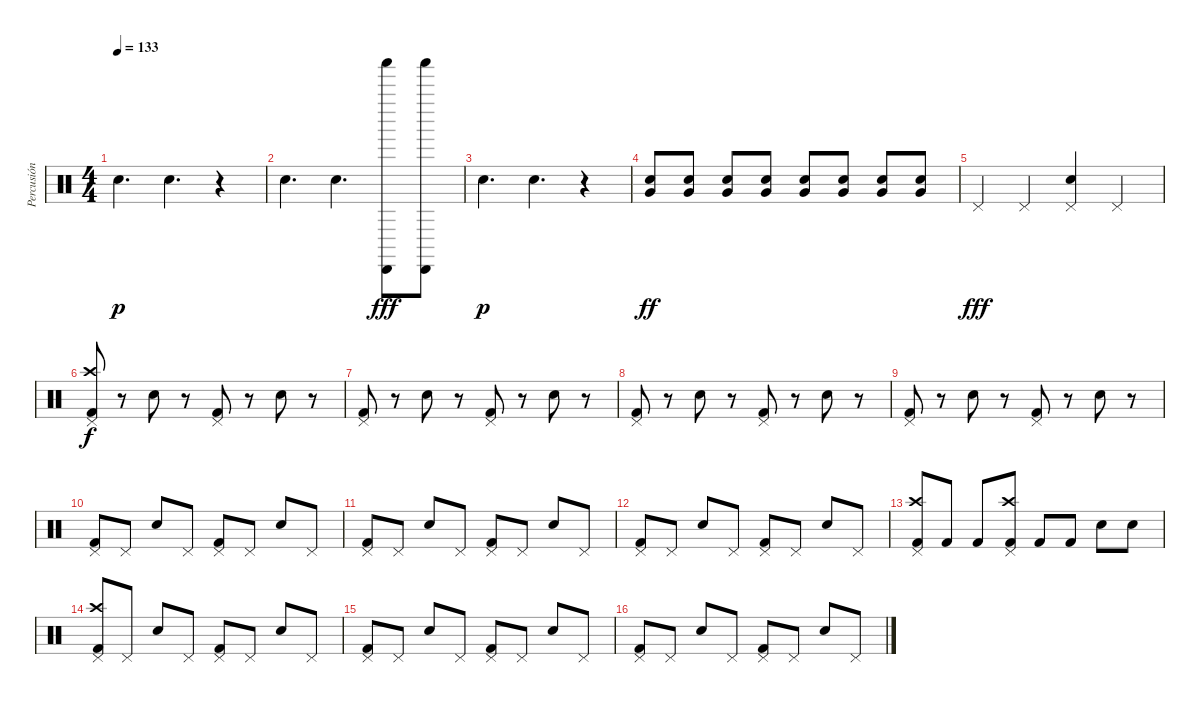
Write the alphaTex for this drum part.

\track ("Percusión" "Percusión") {instrument percussion}
\staff {score}
\articulation defaults
\ts (4 4)
\tempo 133
\clef neutral
\ks c "Snare (hit) 2".4{d dy p} "Snare (hit) 2".4{d}
r.4 |
"Snare (hit) 2".4{d} "Snare (hit) 2".4{d} ("Shaker (hit)" "Cabasa (hit)").8{dy fff} ("Cabasa (hit)" "Shaker (hit)").8 |
"Snare (hit) 2".4{d dy p} "Snare (hit) 2".4{d} r.4{volume 0} |
("Electric Snare (hit)" "Very Low Tom (hit)").8{dy ff volume 10} ("Electric Snare (hit)" "Very Low Tom (hit)").8 ("Electric Snare (hit)" "Very Low Tom (hit)").8 ("Electric Snare (hit)" "Very Low Tom (hit)").8 ("Electric Snare (hit)" "Very Low Tom (hit)").8 ("Electric Snare (hit)" "Very Low Tom (hit)").8 ("Electric Snare (hit)" "Very Low Tom (hit)").8 ("Electric Snare (hit)" "Very Low Tom (hit)").8 |
"Pedal Hi-Hat (hit)".4{dy fff} "Pedal Hi-Hat (hit)".4 ("Electric Snare (hit)" "Pedal Hi-Hat (hit)").4 "Pedal Hi-Hat (hit)".4 |
("Crash high (hit)" "Pedal Hi-Hat (hit)" "Kick (hit) 2").8{dy f} r.8 "Electric Snare (hit)".8 r.8 ("Pedal Hi-Hat (hit)" "Kick (hit) 2").8 r.8 "Electric Snare (hit)".8 r.8 |
("Pedal Hi-Hat (hit)" "Kick (hit) 2").8 r.8 "Electric Snare (hit)".8 r.8 ("Pedal Hi-Hat (hit)" "Kick (hit) 2").8 r.8 "Electric Snare (hit)".8 r.8 |
("Pedal Hi-Hat (hit)" "Kick (hit) 2").8 r.8 "Electric Snare (hit)".8 r.8 ("Pedal Hi-Hat (hit)" "Kick (hit) 2").8 r.8 "Electric Snare (hit)".8 r.8 |
("Pedal Hi-Hat (hit)" "Kick (hit) 2").8 r.8 "Electric Snare (hit)".8 r.8 ("Pedal Hi-Hat (hit)" "Kick (hit) 2").8 r.8 "Electric Snare (hit)".8 r.8 |
("Pedal Hi-Hat (hit)" "Kick (hit) 2").8 "Pedal Hi-Hat (hit)".8 "Electric Snare (hit)".8 "Pedal Hi-Hat (hit)".8 ("Pedal Hi-Hat (hit)" "Kick (hit) 2").8 "Pedal Hi-Hat (hit)".8 "Electric Snare (hit)".8 "Pedal Hi-Hat (hit)".8 |
("Pedal Hi-Hat (hit)" "Kick (hit) 2").8 "Pedal Hi-Hat (hit)".8 "Electric Snare (hit)".8 "Pedal Hi-Hat (hit)".8 ("Pedal Hi-Hat (hit)" "Kick (hit) 2").8 "Pedal Hi-Hat (hit)".8 "Electric Snare (hit)".8 "Pedal Hi-Hat (hit)".8 |
("Pedal Hi-Hat (hit)" "Kick (hit) 2").8 "Pedal Hi-Hat (hit)".8 "Electric Snare (hit)".8 "Pedal Hi-Hat (hit)".8 ("Pedal Hi-Hat (hit)" "Kick (hit) 2").8 "Pedal Hi-Hat (hit)".8 "Electric Snare (hit)".8 "Pedal Hi-Hat (hit)".8 |
("Crash high (hit)" "Pedal Hi-Hat (hit)" "Kick (hit) 2").8 "Kick (hit) 2".8 "Kick (hit) 2".8 ("Crash high (hit)" "Pedal Hi-Hat (hit)" "Kick (hit) 2").8 "Kick (hit) 2".8 "Kick (hit) 2".8 "Electric Snare (hit)".8 "Electric Snare (hit)".8 |
("Crash high (hit)" "Pedal Hi-Hat (hit)" "Kick (hit) 2").8 "Pedal Hi-Hat (hit)".8 "Electric Snare (hit)".8 "Pedal Hi-Hat (hit)".8 ("Pedal Hi-Hat (hit)" "Kick (hit) 2").8 "Pedal Hi-Hat (hit)".8 "Electric Snare (hit)".8 "Pedal Hi-Hat (hit)".8 |
("Pedal Hi-Hat (hit)" "Kick (hit) 2").8 "Pedal Hi-Hat (hit)".8 "Electric Snare (hit)".8 "Pedal Hi-Hat (hit)".8 ("Pedal Hi-Hat (hit)" "Kick (hit) 2").8 "Pedal Hi-Hat (hit)".8 "Electric Snare (hit)".8 "Pedal Hi-Hat (hit)".8 |
("Pedal Hi-Hat (hit)" "Kick (hit) 2").8 "Pedal Hi-Hat (hit)".8 "Electric Snare (hit)".8 "Pedal Hi-Hat (hit)".8 ("Pedal Hi-Hat (hit)" "Kick (hit) 2").8 "Pedal Hi-Hat (hit)".8 "Electric Snare (hit)".8 "Pedal Hi-Hat (hit)".8
